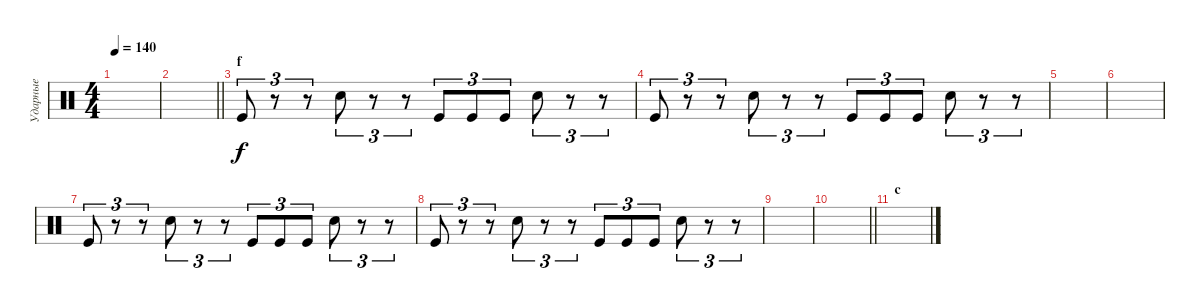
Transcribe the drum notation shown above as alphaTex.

\track ("Ударные" "Ударные") {instrument percussion}
\staff {score}
\articulation defaults
\ts (4 4)
\tempo 140
\clef neutral
\ks c
|
\barLineRight lightlight
|
\section ("" "f")
"Kick (hit)".8{tu (3 2)} r.8{tu (3 2)} r.8{tu (3 2)} "Electric Snare (hit)".8{tu (3 2)} r.8{tu (3 2)} r.8{tu (3 2)} "Kick (hit)".8{tu (3 2)} "Kick (hit)".8{tu (3 2)} "Kick (hit)".8{tu (3 2)} "Electric Snare (hit)".8{tu (3 2)} r.8{tu (3 2)} r.8{tu (3 2)} |
"Kick (hit)".8{tu (3 2)} r.8{tu (3 2)} r.8{tu (3 2)} "Electric Snare (hit)".8{tu (3 2)} r.8{tu (3 2)} r.8{tu (3 2)} "Kick (hit)".8{tu (3 2)} "Kick (hit)".8{tu (3 2)} "Kick (hit)".8{tu (3 2)} "Electric Snare (hit)".8{tu (3 2)} r.8{tu (3 2)} r.8{tu (3 2)} |
|
|
"Kick (hit)".8{tu (3 2)} r.8{tu (3 2)} r.8{tu (3 2)} "Electric Snare (hit)".8{tu (3 2)} r.8{tu (3 2)} r.8{tu (3 2)} "Kick (hit)".8{tu (3 2)} "Kick (hit)".8{tu (3 2)} "Kick (hit)".8{tu (3 2)} "Electric Snare (hit)".8{tu (3 2)} r.8{tu (3 2)} r.8{tu (3 2)} |
"Kick (hit)".8{tu (3 2)} r.8{tu (3 2)} r.8{tu (3 2)} "Electric Snare (hit)".8{tu (3 2)} r.8{tu (3 2)} r.8{tu (3 2)} "Kick (hit)".8{tu (3 2)} "Kick (hit)".8{tu (3 2)} "Kick (hit)".8{tu (3 2)} "Electric Snare (hit)".8{tu (3 2)} r.8{tu (3 2)} r.8{tu (3 2)} |
|
\barLineRight lightlight
|
\section ("" "c")
